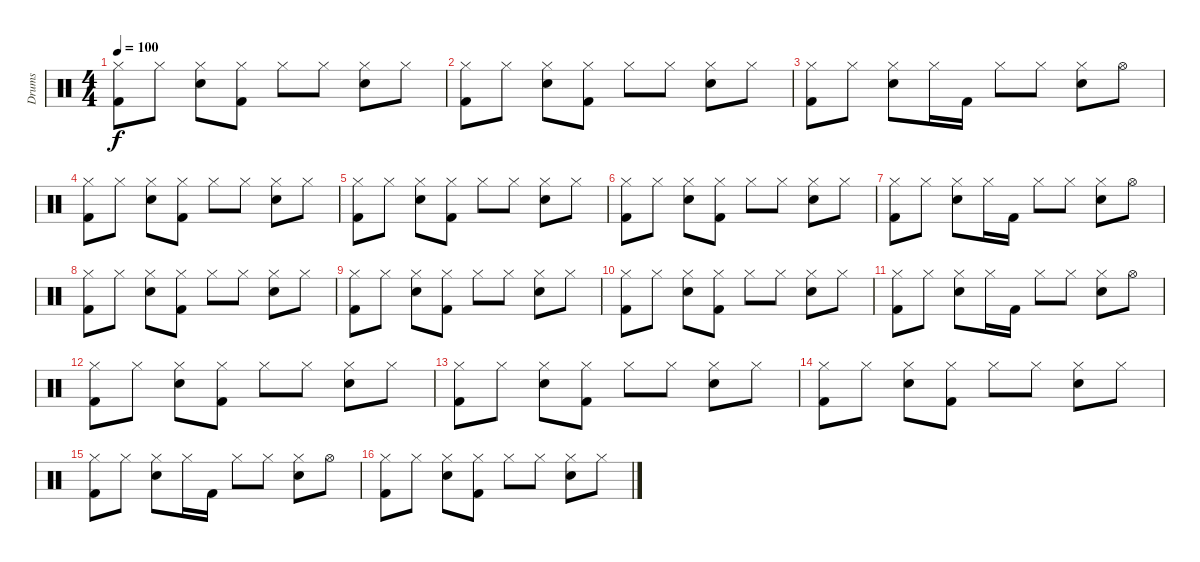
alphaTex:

\track ("Drums" "Drums") {instrument percussion}
\staff {score}
\articulation defaults
\ts (4 4)
\tempo 100
\clef neutral
\ks c
("Kick (hit) 2" "Hi-Hat (closed)").8{dy f} "Hi-Hat (closed)".8 ("Electric Snare (hit)" "Hi-Hat (closed)").8 ("Kick (hit) 2" "Hi-Hat (closed)").8 "Hi-Hat (closed)".8 "Hi-Hat (closed)".8 ("Electric Snare (hit)" "Hi-Hat (closed)").8 "Hi-Hat (closed)".8 |
("Kick (hit) 2" "Hi-Hat (closed)").8 "Hi-Hat (closed)".8 ("Electric Snare (hit)" "Hi-Hat (closed)").8 ("Kick (hit) 2" "Hi-Hat (closed)").8 "Hi-Hat (closed)".8 "Hi-Hat (closed)".8 ("Electric Snare (hit)" "Hi-Hat (closed)").8 "Hi-Hat (closed)".8 |
("Kick (hit) 2" "Hi-Hat (closed)").8 "Hi-Hat (closed)".8 ("Electric Snare (hit)" "Hi-Hat (closed)").8 "Hi-Hat (closed)".16 "Kick (hit) 2".16 "Hi-Hat (closed)".8 "Hi-Hat (closed)".8 ("Electric Snare (hit)" "Hi-Hat (closed)").8 "Hi-Hat (open)".8 |
("Kick (hit) 2" "Hi-Hat (closed)").8 "Hi-Hat (closed)".8 ("Electric Snare (hit)" "Hi-Hat (closed)").8 ("Kick (hit) 2" "Hi-Hat (closed)").8 "Hi-Hat (closed)".8 "Hi-Hat (closed)".8 ("Electric Snare (hit)" "Hi-Hat (closed)").8 "Hi-Hat (closed)".8 |
("Kick (hit) 2" "Hi-Hat (closed)").8 "Hi-Hat (closed)".8 ("Electric Snare (hit)" "Hi-Hat (closed)").8 ("Kick (hit) 2" "Hi-Hat (closed)").8 "Hi-Hat (closed)".8 "Hi-Hat (closed)".8 ("Electric Snare (hit)" "Hi-Hat (closed)").8 "Hi-Hat (closed)".8 |
("Kick (hit) 2" "Hi-Hat (closed)").8 "Hi-Hat (closed)".8 ("Electric Snare (hit)" "Hi-Hat (closed)").8 ("Kick (hit) 2" "Hi-Hat (closed)").8 "Hi-Hat (closed)".8 "Hi-Hat (closed)".8 ("Electric Snare (hit)" "Hi-Hat (closed)").8 "Hi-Hat (closed)".8 |
("Kick (hit) 2" "Hi-Hat (closed)").8 "Hi-Hat (closed)".8 ("Electric Snare (hit)" "Hi-Hat (closed)").8 "Hi-Hat (closed)".16 "Kick (hit) 2".16 "Hi-Hat (closed)".8 "Hi-Hat (closed)".8 ("Electric Snare (hit)" "Hi-Hat (closed)").8 "Hi-Hat (open)".8 |
("Kick (hit) 2" "Hi-Hat (closed)").8 "Hi-Hat (closed)".8 ("Electric Snare (hit)" "Hi-Hat (closed)").8 ("Kick (hit) 2" "Hi-Hat (closed)").8 "Hi-Hat (closed)".8 "Hi-Hat (closed)".8 ("Electric Snare (hit)" "Hi-Hat (closed)").8 "Hi-Hat (closed)".8 |
("Kick (hit) 2" "Hi-Hat (closed)").8 "Hi-Hat (closed)".8 ("Electric Snare (hit)" "Hi-Hat (closed)").8 ("Kick (hit) 2" "Hi-Hat (closed)").8 "Hi-Hat (closed)".8 "Hi-Hat (closed)".8 ("Electric Snare (hit)" "Hi-Hat (closed)").8 "Hi-Hat (closed)".8 |
("Kick (hit) 2" "Hi-Hat (closed)").8 "Hi-Hat (closed)".8 ("Electric Snare (hit)" "Hi-Hat (closed)").8 ("Kick (hit) 2" "Hi-Hat (closed)").8 "Hi-Hat (closed)".8 "Hi-Hat (closed)".8 ("Electric Snare (hit)" "Hi-Hat (closed)").8 "Hi-Hat (closed)".8 |
("Kick (hit) 2" "Hi-Hat (closed)").8 "Hi-Hat (closed)".8 ("Electric Snare (hit)" "Hi-Hat (closed)").8 "Hi-Hat (closed)".16 "Kick (hit) 2".16 "Hi-Hat (closed)".8 "Hi-Hat (closed)".8 ("Electric Snare (hit)" "Hi-Hat (closed)").8 "Hi-Hat (open)".8 |
("Kick (hit) 2" "Hi-Hat (closed)").8 "Hi-Hat (closed)".8 ("Electric Snare (hit)" "Hi-Hat (closed)").8 ("Kick (hit) 2" "Hi-Hat (closed)").8 "Hi-Hat (closed)".8 "Hi-Hat (closed)".8 ("Electric Snare (hit)" "Hi-Hat (closed)").8 "Hi-Hat (closed)".8 |
("Kick (hit) 2" "Hi-Hat (closed)").8 "Hi-Hat (closed)".8 ("Electric Snare (hit)" "Hi-Hat (closed)").8 ("Kick (hit) 2" "Hi-Hat (closed)").8 "Hi-Hat (closed)".8 "Hi-Hat (closed)".8 ("Electric Snare (hit)" "Hi-Hat (closed)").8 "Hi-Hat (closed)".8 |
("Kick (hit) 2" "Hi-Hat (closed)").8 "Hi-Hat (closed)".8 ("Electric Snare (hit)" "Hi-Hat (closed)").8 ("Kick (hit) 2" "Hi-Hat (closed)").8 "Hi-Hat (closed)".8 "Hi-Hat (closed)".8 ("Electric Snare (hit)" "Hi-Hat (closed)").8 "Hi-Hat (closed)".8 |
("Kick (hit) 2" "Hi-Hat (closed)").8 "Hi-Hat (closed)".8 ("Electric Snare (hit)" "Hi-Hat (closed)").8 "Hi-Hat (closed)".16 "Kick (hit) 2".16 "Hi-Hat (closed)".8 "Hi-Hat (closed)".8 ("Electric Snare (hit)" "Hi-Hat (closed)").8 "Hi-Hat (open)".8 |
("Kick (hit) 2" "Hi-Hat (closed)").8 "Hi-Hat (closed)".8 ("Electric Snare (hit)" "Hi-Hat (closed)").8 ("Kick (hit) 2" "Hi-Hat (closed)").8 "Hi-Hat (closed)".8 "Hi-Hat (closed)".8 ("Electric Snare (hit)" "Hi-Hat (closed)").8 "Hi-Hat (closed)".8
